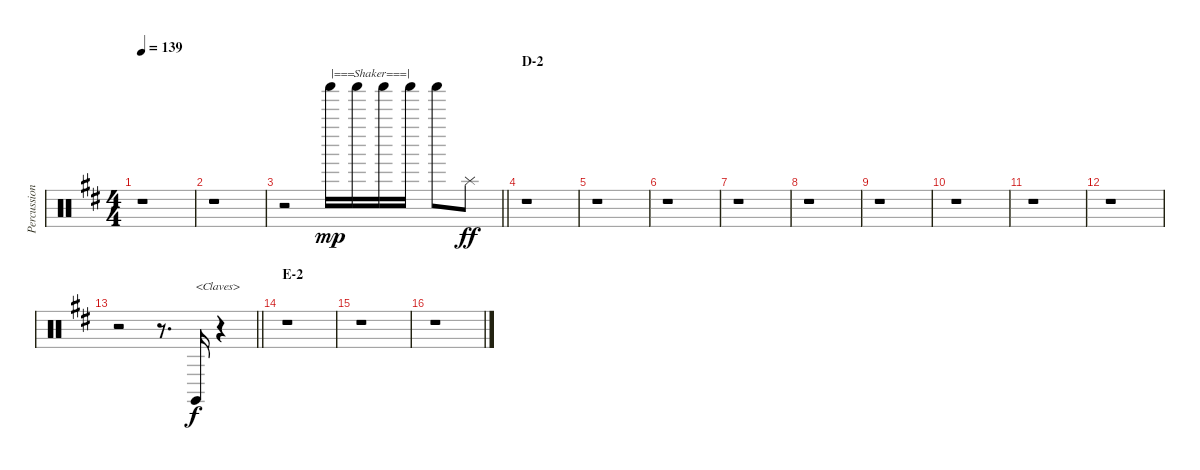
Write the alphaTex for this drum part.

\track ("Percussion" "Percussion") {instrument percussion}
\staff {score}
\articulation defaults
\ts (4 4)
\tempo 139
\clef neutral
\ks d
r.1{dy f} |
r.1 |
\barLineRight lightlight
r.2 "Shaker (hit)".16{txt "|===Shaker===|" dy mp} "Shaker (hit)".16 "Shaker (hit)".16 "Shaker (hit)".16 "Shaker (hit)".8 "Splash (hit)".8{dy ff} |
\section ("" "D-2")
r.1 |
r.1 |
r.1 |
r.1 |
r.1 |
r.1 |
r.1 |
r.1 |
r.1 |
\barLineRight lightlight
r.2 r.8{d} "Claves (hit)".16{txt "<Claves>" dy f} r.4 |
\section ("" "E-2")
r.1 |
r.1 |
r.1
